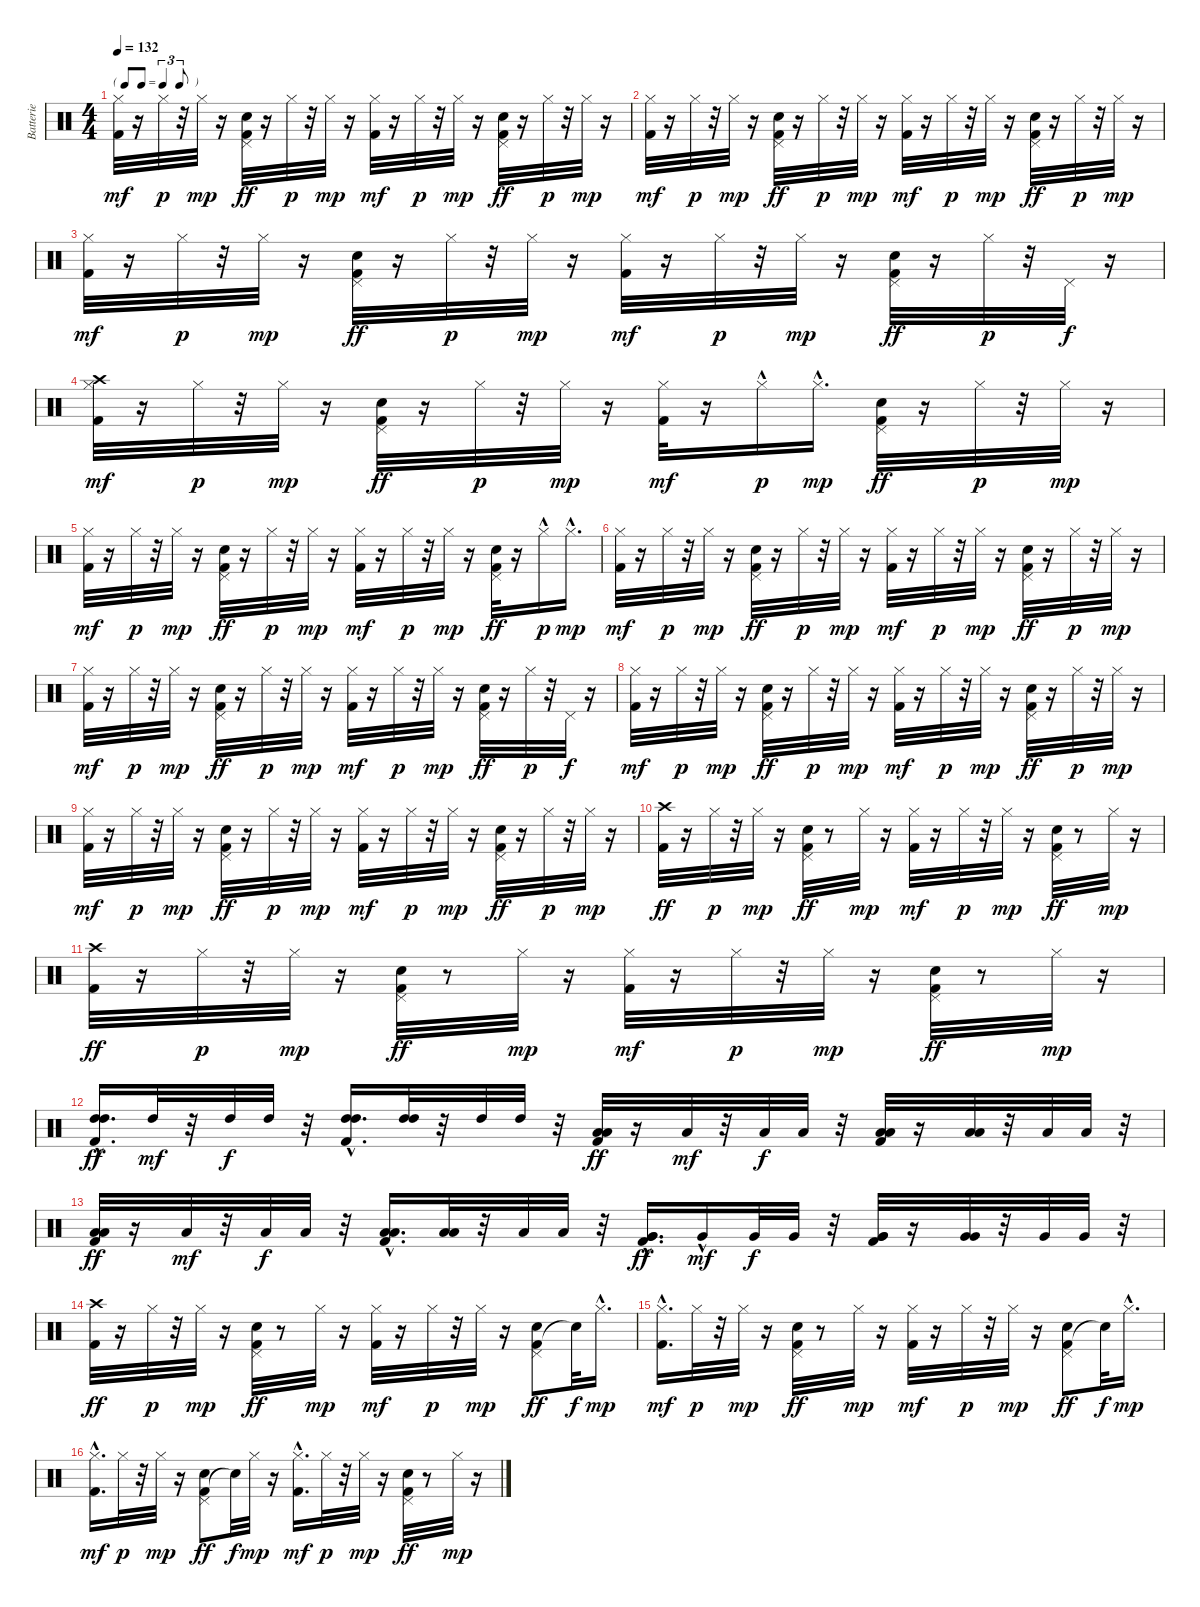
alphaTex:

\track ("Batterie" "Batterie") {instrument percussion}
\staff {score}
\articulation defaults
\ts (4 4)
\tf triplet8th
\tempo 132
\clef neutral
\ks c
("Kick (hit) 2" "Hi-Hat (closed)").32{dy mf} r.16 "Hi-Hat (closed)".32{dy p} r.32 "Hi-Hat (closed)".32{dy mp} r.16 ("Kick (hit) 2" "Snare (hit) 2" "Pedal Hi-Hat (hit)").32{dy ff} r.16 "Hi-Hat (closed)".32{dy p} r.32 "Hi-Hat (closed)".32{dy mp} r.16 ("Kick (hit) 2" "Hi-Hat (closed)").32{dy mf} r.16 "Hi-Hat (closed)".32{dy p} r.32 "Hi-Hat (closed)".32{dy mp} r.16 ("Kick (hit) 2" "Snare (hit) 2" "Pedal Hi-Hat (hit)").32{dy ff} r.16 "Hi-Hat (closed)".32{dy p} r.32 "Hi-Hat (closed)".32{dy mp} r.16 |
("Kick (hit) 2" "Hi-Hat (closed)").32{dy mf} r.16 "Hi-Hat (closed)".32{dy p} r.32 "Hi-Hat (closed)".32{dy mp} r.16 ("Kick (hit) 2" "Snare (hit) 2" "Pedal Hi-Hat (hit)").32{dy ff} r.16 "Hi-Hat (closed)".32{dy p} r.32 "Hi-Hat (closed)".32{dy mp} r.16 ("Kick (hit) 2" "Hi-Hat (closed)").32{dy mf} r.16 "Hi-Hat (closed)".32{dy p} r.32 "Hi-Hat (closed)".32{dy mp} r.16 ("Kick (hit) 2" "Snare (hit) 2" "Pedal Hi-Hat (hit)").32{dy ff} r.16 "Hi-Hat (closed)".32{dy p} r.32 "Hi-Hat (closed)".32{dy mp} r.16 |
("Kick (hit) 2" "Hi-Hat (closed)").32{dy mf} r.16 "Hi-Hat (closed)".32{dy p} r.32 "Hi-Hat (closed)".32{dy mp} r.16 ("Kick (hit) 2" "Snare (hit) 2" "Pedal Hi-Hat (hit)").32{dy ff} r.16 "Hi-Hat (closed)".32{dy p} r.32 "Hi-Hat (closed)".32{dy mp} r.16 ("Kick (hit) 2" "Hi-Hat (closed)").32{dy mf} r.16 "Hi-Hat (closed)".32{dy p} r.32 "Hi-Hat (closed)".32{dy mp} r.16 ("Kick (hit) 2" "Snare (hit) 2" "Pedal Hi-Hat (hit)").32{dy ff} r.16 "Hi-Hat (closed)".32{dy p} r.32 "Pedal Hi-Hat (hit)".32{dy f} r.16 |
("Kick (hit) 2" "Hi-Hat (closed)" "Crash high (hit)").32{dy mf} r.16 "Hi-Hat (closed)".32{dy p} r.32 "Hi-Hat (closed)".32{dy mp} r.16 ("Kick (hit) 2" "Snare (hit) 2" "Pedal Hi-Hat (hit)").32{dy ff} r.16 "Hi-Hat (closed)".32{dy p} r.32 "Hi-Hat (closed)".32{dy mp} r.16 ("Kick (hit) 2" "Hi-Hat (closed)").32{dy mf} r.16 "Hi-Hat (closed)"{hac}.16{dy p} "Hi-Hat (closed)"{hac}.16{d dy mp} ("Kick (hit) 2" "Snare (hit) 2" "Pedal Hi-Hat (hit)").32{dy ff} r.16 "Hi-Hat (closed)".32{dy p} r.32 "Hi-Hat (closed)".32{dy mp} r.16 |
("Kick (hit) 2" "Hi-Hat (closed)").32{dy mf} r.16 "Hi-Hat (closed)".32{dy p} r.32 "Hi-Hat (closed)".32{dy mp} r.16 ("Kick (hit) 2" "Snare (hit) 2" "Pedal Hi-Hat (hit)").32{dy ff} r.16 "Hi-Hat (closed)".32{dy p} r.32 "Hi-Hat (closed)".32{dy mp} r.16 ("Kick (hit) 2" "Hi-Hat (closed)").32{dy mf} r.16 "Hi-Hat (closed)".32{dy p} r.32 "Hi-Hat (closed)".32{dy mp} r.16 ("Kick (hit) 2" "Snare (hit) 2" "Pedal Hi-Hat (hit)").32{dy ff} r.16 "Hi-Hat (closed)"{hac}.16{dy p} "Hi-Hat (closed)"{hac}.16{d dy mp} |
("Kick (hit) 2" "Hi-Hat (closed)").32{dy mf} r.16 "Hi-Hat (closed)".32{dy p} r.32 "Hi-Hat (closed)".32{dy mp} r.16 ("Kick (hit) 2" "Snare (hit) 2" "Pedal Hi-Hat (hit)").32{dy ff} r.16 "Hi-Hat (closed)".32{dy p} r.32 "Hi-Hat (closed)".32{dy mp} r.16 ("Kick (hit) 2" "Hi-Hat (closed)").32{dy mf} r.16 "Hi-Hat (closed)".32{dy p} r.32 "Hi-Hat (closed)".32{dy mp} r.16 ("Kick (hit) 2" "Snare (hit) 2" "Pedal Hi-Hat (hit)").32{dy ff} r.16 "Hi-Hat (closed)".32{dy p} r.32 "Hi-Hat (closed)".32{dy mp} r.16 |
("Kick (hit) 2" "Hi-Hat (closed)").32{dy mf} r.16 "Hi-Hat (closed)".32{dy p} r.32 "Hi-Hat (closed)".32{dy mp} r.16 ("Kick (hit) 2" "Snare (hit) 2" "Pedal Hi-Hat (hit)").32{dy ff} r.16 "Hi-Hat (closed)".32{dy p} r.32 "Hi-Hat (closed)".32{dy mp} r.16 ("Kick (hit) 2" "Hi-Hat (closed)").32{dy mf} r.16 "Hi-Hat (closed)".32{dy p} r.32 "Hi-Hat (closed)".32{dy mp} r.16 ("Kick (hit) 2" "Snare (hit) 2" "Pedal Hi-Hat (hit)").32{dy ff} r.16 "Hi-Hat (closed)".32{dy p} r.32 "Pedal Hi-Hat (hit)".32{dy f} r.16 |
("Kick (hit) 2" "Hi-Hat (closed)").32{dy mf} r.16 "Hi-Hat (closed)".32{dy p} r.32 "Hi-Hat (closed)".32{dy mp} r.16 ("Kick (hit) 2" "Snare (hit) 2" "Pedal Hi-Hat (hit)").32{dy ff} r.16 "Hi-Hat (closed)".32{dy p} r.32 "Hi-Hat (closed)".32{dy mp} r.16 ("Kick (hit) 2" "Hi-Hat (closed)").32{dy mf} r.16 "Hi-Hat (closed)".32{dy p} r.32 "Hi-Hat (closed)".32{dy mp} r.16 ("Kick (hit) 2" "Snare (hit) 2" "Pedal Hi-Hat (hit)").32{dy ff} r.16 "Hi-Hat (closed)".32{dy p} r.32 "Hi-Hat (closed)".32{dy mp} r.16 |
("Kick (hit) 2" "Hi-Hat (closed)").32{dy mf} r.16 "Hi-Hat (closed)".32{dy p} r.32 "Hi-Hat (closed)".32{dy mp} r.16 ("Kick (hit) 2" "Snare (hit) 2" "Pedal Hi-Hat (hit)").32{dy ff} r.16 "Hi-Hat (closed)".32{dy p} r.32 "Hi-Hat (closed)".32{dy mp} r.16 ("Kick (hit) 2" "Hi-Hat (closed)").32{dy mf} r.16 "Hi-Hat (closed)".32{dy p} r.32 "Hi-Hat (closed)".32{dy mp} r.16 ("Kick (hit) 2" "Snare (hit) 2" "Pedal Hi-Hat (hit)").32{dy ff} r.16 "Hi-Hat (closed)".32{dy p} r.32 "Hi-Hat (closed)".32{dy mp} r.16 |
("Kick (hit) 2" "Crash high (hit)").32{dy ff} r.16 "Hi-Hat (closed)".32{dy p} r.32 "Hi-Hat (closed)".32{dy mp} r.16 ("Kick (hit) 2" "Snare (hit) 2" "Pedal Hi-Hat (hit)").32{dy ff} r.8 "Hi-Hat (closed)".32{dy mp} r.16 ("Kick (hit) 2" "Hi-Hat (closed)").32{dy mf} r.16 "Hi-Hat (closed)".32{dy p} r.32 "Hi-Hat (closed)".32{dy mp} r.16 ("Kick (hit) 2" "Snare (hit) 2" "Pedal Hi-Hat (hit)").32{dy ff} r.8 "Hi-Hat (closed)".32{dy mp} r.16 |
("Kick (hit) 2" "Crash high (hit)").32{dy ff} r.16 "Hi-Hat (closed)".32{dy p} r.32 "Hi-Hat (closed)".32{dy mp} r.16 ("Kick (hit) 2" "Snare (hit) 2" "Pedal Hi-Hat (hit)").32{dy ff} r.8 "Hi-Hat (closed)".32{dy mp} r.16 ("Kick (hit) 2" "Hi-Hat (closed)").32{dy mf} r.16 "Hi-Hat (closed)".32{dy p} r.32 "Hi-Hat (closed)".32{dy mp} r.16 ("Kick (hit) 2" "Snare (hit) 2" "Pedal Hi-Hat (hit)").32{dy ff} r.8 "Hi-Hat (closed)".32{dy mp} r.16 |
("Kick (hit) 2" "High Tom (hit)" "High Tom (hit)"{hac}).16{d dy ff} "High Tom (hit)".32{dy mf} r.32 "High Tom (hit)".32{dy f} "High Tom (hit)".32 r.32 ("Kick (hit) 2" "High Tom (hit)" "High Tom (hit)"{hac}).16{d} ("High Tom (hit)" "High Tom (hit)").32 r.32 "High Tom (hit)".32 "High Tom (hit)".32 r.32 ("Kick (hit) 2" "Low Tom (hit)" "Low Tom (hit)").32{dy ff} r.16 "Low Tom (hit)".32{dy mf} r.32 "Low Tom (hit)".32{dy f} "Low Tom (hit)".32 r.32 ("Kick (hit) 2" "Low Tom (hit)" "Low Tom (hit)").32 r.16 ("Low Tom (hit)" "Low Tom (hit)").32 r.32 "Low Tom (hit)".32 "Low Tom (hit)".32 r.32 |
("Kick (hit) 2" "Low Floor Tom (hit)" "Low Floor Tom (hit)").32{dy ff} r.16 "Low Floor Tom (hit)".32{dy mf} r.32 "Low Floor Tom (hit)".32{dy f} "Low Floor Tom (hit)".32 r.32 ("Kick (hit) 2" "Low Floor Tom (hit)" "Low Floor Tom (hit)"{hac}).16{d} ("Low Floor Tom (hit)" "Low Floor Tom (hit)").32 r.32 "Low Floor Tom (hit)".32 "Low Floor Tom (hit)".32 r.32 ("Kick (hit) 2" "Very Low Tom (hit)" "Very Low Tom (hit)"{hac}).16{d dy ff} "Very Low Tom (hit)"{hac}.16{dy mf} "Very Low Tom (hit)".32{dy f} "Very Low Tom (hit)".32 r.32 ("Kick (hit) 2" "Very Low Tom (hit)" "Very Low Tom (hit)").32 r.16 ("Very Low Tom (hit)" "Very Low Tom (hit)").32 r.32 "Very Low Tom (hit)".32 "Very Low Tom (hit)".32 r.32 |
("Kick (hit) 2" "Crash high (hit)").32{dy ff} r.16 "Hi-Hat (closed)".32{dy p} r.32 "Hi-Hat (closed)".32{dy mp} r.16 ("Kick (hit) 2" "Snare (hit) 2" "Pedal Hi-Hat (hit)").32{dy ff} r.8 "Hi-Hat (closed)".32{dy mp} r.16 ("Kick (hit) 2" "Hi-Hat (closed)").32{dy mf} r.16 "Hi-Hat (closed)".32{dy p} r.32 "Hi-Hat (closed)".32{dy mp} r.16 ("Kick (hit) 2" "Snare (hit) 2" "Pedal Hi-Hat (hit)").8{dy ff} "Snare (hit)"{t}.32{dy f} "Hi-Hat (closed)"{hac}.16{d dy mp} |
("Kick (hit) 2"{hac} "Hi-Hat (closed)"{hac}).16{d dy mf} "Hi-Hat (closed)".32{dy p} r.32 "Hi-Hat (closed)".32{dy mp} r.16 ("Kick (hit) 2" "Snare (hit) 2" "Pedal Hi-Hat (hit)").32{dy ff} r.8 "Hi-Hat (closed)".32{dy mp} r.16 ("Kick (hit) 2" "Hi-Hat (closed)").32{dy mf} r.16 "Hi-Hat (closed)".32{dy p} r.32 "Hi-Hat (closed)".32{dy mp} r.16 ("Kick (hit) 2" "Snare (hit) 2" "Pedal Hi-Hat (hit)").8{dy ff} "Snare (hit)"{t}.32{dy f} "Hi-Hat (closed)"{hac}.16{d dy mp} |
("Kick (hit) 2"{hac} "Hi-Hat (closed)"{hac}).16{d dy mf} "Hi-Hat (closed)".32{dy p} r.32 "Hi-Hat (closed)".32{dy mp} r.16 ("Kick (hit) 2" "Snare (hit) 2" "Pedal Hi-Hat (hit)").8{dy ff} "Snare (hit)"{t}.32{dy f} "Hi-Hat (closed)".32{dy mp} r.16 ("Kick (hit) 2"{hac} "Hi-Hat (closed)").16{d dy mf} "Hi-Hat (closed)".32{dy p} r.32 "Hi-Hat (closed)".32{dy mp} r.16 ("Kick (hit) 2" "Snare (hit) 2" "Pedal Hi-Hat (hit)").32{dy ff} r.8 "Hi-Hat (closed)".32{dy mp} r.16
